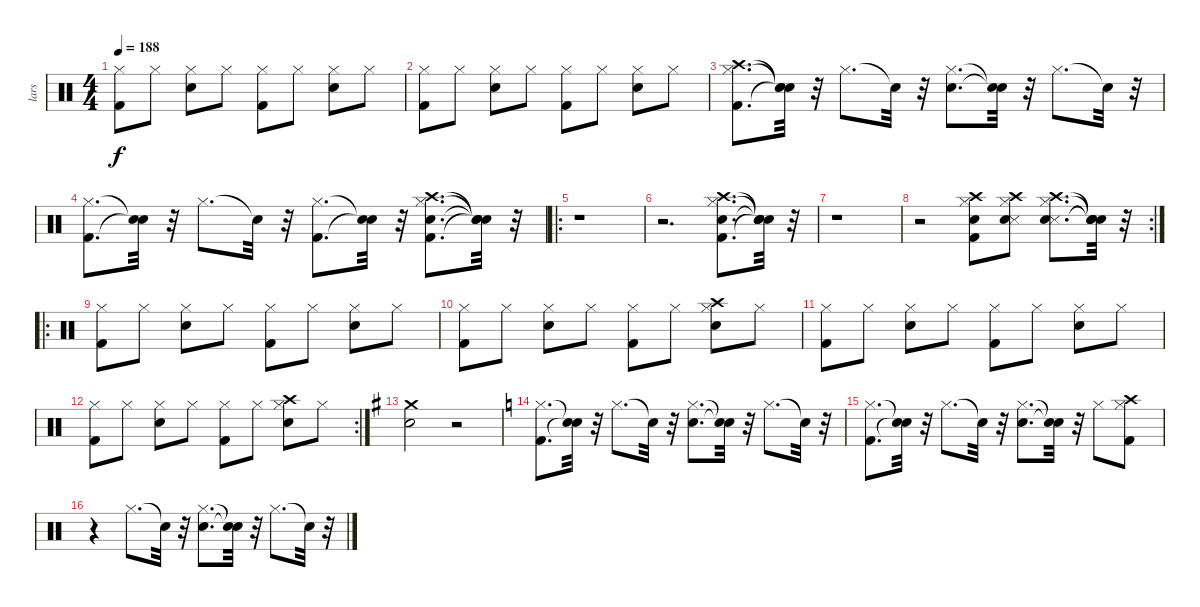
\track ("lars" "lars") {instrument percussion}
\staff {score}
\articulation defaults
\ts (4 4)
\tempo 188
\clef neutral
\ks c
("Kick (hit) 2" "Hi-Hat (closed)").8{dy f} "Hi-Hat (closed)".8 ("Snare (hit) 2" "Hi-Hat (closed)").8 "Hi-Hat (closed)".8 ("Kick (hit) 2" "Hi-Hat (closed)").8 "Hi-Hat (closed)".8 ("Snare (hit) 2" "Hi-Hat (closed)").8 "Hi-Hat (closed)".8 |
("Kick (hit) 2" "Hi-Hat (closed)").8 "Hi-Hat (closed)".8 ("Snare (hit) 2" "Hi-Hat (closed)").8 "Hi-Hat (closed)".8 ("Kick (hit) 2" "Hi-Hat (closed)").8 "Hi-Hat (closed)".8 ("Snare (hit) 2" "Hi-Hat (closed)").8 "Hi-Hat (closed)".8 |
("Kick (hit) 2" "Hi-Hat (closed)" "Crash high (hit)").8{d} ("Snare (hit)"{t} "Snare (hit)"{t} "Snare (hit)"{t}).32 r.32 "Hi-Hat (closed)".8{d} "Snare (hit)"{t}.32 r.32 ("Snare (hit) 2" "Hi-Hat (closed)").8{d} ("Snare (hit)"{t} "Snare (hit)"{t}).32 r.32 "Hi-Hat (closed)".8{d} "Snare (hit)"{t}.32 r.32 |
("Kick (hit) 2" "Hi-Hat (closed)").8{d} ("Snare (hit)"{t} "Snare (hit)"{t}).32 r.32 "Hi-Hat (closed)".8{d} "Snare (hit)"{t}.32 r.32 ("Kick (hit) 2" "Hi-Hat (closed)").8{d} ("Snare (hit)"{t} "Snare (hit)"{t}).32 r.32 ("Kick (hit) 2" "Snare (hit) 2" "Hi-Hat (closed)" "Crash high (hit)").8{d} ("Snare (hit)"{t} "Snare (hit)"{t} "Snare (hit)"{t} "Snare (hit)"{t}).32 r.32 |
\ro
r.1 |
r.2{d} ("Kick (hit) 2" "Snare (hit) 2" "Hi-Hat (closed)" "Crash high (hit)").8{d} ("Snare (hit)"{t} "Snare (hit)"{t} "Snare (hit)"{t} "Snare (hit)"{t}).32 r.32 |
r.1 |
\rc 2
r.2 ("Kick (hit) 2" "Snare (hit) 2" "Hi-Hat (closed)" "Crash high (hit)").8 ("Snare (side stick) 3" "Snare (hit) 2" "Hi-Hat (closed)" "Crash high (hit)").8 ("Snare (side stick) 3" "Snare (hit) 2" "Hi-Hat (closed)" "Crash high (hit)").8{d} ("Snare (hit)"{t} "Snare (hit)"{t} "Snare (hit)"{t} "Snare (hit)"{t}).32 r.32 |
\ro
("Kick (hit) 2" "Hi-Hat (closed)").8 "Hi-Hat (closed)".8 ("Snare (hit) 2" "Hi-Hat (closed)").8 "Hi-Hat (closed)".8 ("Kick (hit) 2" "Hi-Hat (closed)").8 "Hi-Hat (closed)".8 ("Snare (hit) 2" "Hi-Hat (closed)").8 "Hi-Hat (closed)".8 |
("Kick (hit) 2" "Hi-Hat (closed)").8 "Hi-Hat (closed)".8 ("Snare (hit) 2" "Hi-Hat (closed)").8 "Hi-Hat (closed)".8 ("Kick (hit) 2" "Hi-Hat (closed)").8 "Hi-Hat (closed)".8 ("Snare (hit) 2" "Hi-Hat (closed)" "Crash high (hit)").8 "Hi-Hat (closed)".8 |
("Kick (hit) 2" "Hi-Hat (closed)").8 "Hi-Hat (closed)".8 ("Snare (hit) 2" "Hi-Hat (closed)").8 "Hi-Hat (closed)".8 ("Kick (hit) 2" "Hi-Hat (closed)").8 "Hi-Hat (closed)".8 ("Snare (hit) 2" "Hi-Hat (closed)").8 "Hi-Hat (closed)".8 |
\rc 2
("Kick (hit) 2" "Hi-Hat (closed)").8 "Hi-Hat (closed)".8 ("Snare (hit) 2" "Hi-Hat (closed)").8 "Hi-Hat (closed)".8 ("Kick (hit) 2" "Hi-Hat (closed)").8 "Hi-Hat (closed)".8 ("Snare (hit) 2" "Hi-Hat (closed)" "Crash high (hit)").8 "Hi-Hat (closed)".8 |
\ks g
("Crash medium (hit)" "Snare (hit) 2").2 r.2 |
\ks c
("Kick (hit) 2" "Hi-Hat (closed)").8{d} ("Snare (hit)"{t} "Snare (hit)"{t}).32 r.32 "Hi-Hat (closed)".8{d} "Snare (hit)"{t}.32 r.32 ("Snare (hit) 2" "Hi-Hat (closed)").8{d} ("Snare (hit)"{t} "Snare (hit)"{t}).32 r.32 "Hi-Hat (closed)".8{d} "Snare (hit)"{t}.32 r.32 |
("Kick (hit) 2" "Hi-Hat (closed)").8{d} ("Snare (hit)"{t} "Snare (hit)"{t}).32 r.32 "Hi-Hat (closed)".8{d} "Snare (hit)"{t}.32 r.32 ("Snare (hit) 2" "Hi-Hat (closed)").8{d} ("Snare (hit)"{t} "Snare (hit)"{t}).32 r.32 "Hi-Hat (closed)".8 ("Kick (hit) 2" "Hi-Hat (closed)" "Crash high (hit)").8 |
r.4 "Hi-Hat (closed)".8{d} "Snare (hit)"{t}.32 r.32 ("Snare (hit) 2" "Hi-Hat (closed)").8{d} ("Snare (hit)"{t} "Snare (hit)"{t}).32 r.32 "Hi-Hat (closed)".8{d} "Snare (hit)"{t}.32 r.32
